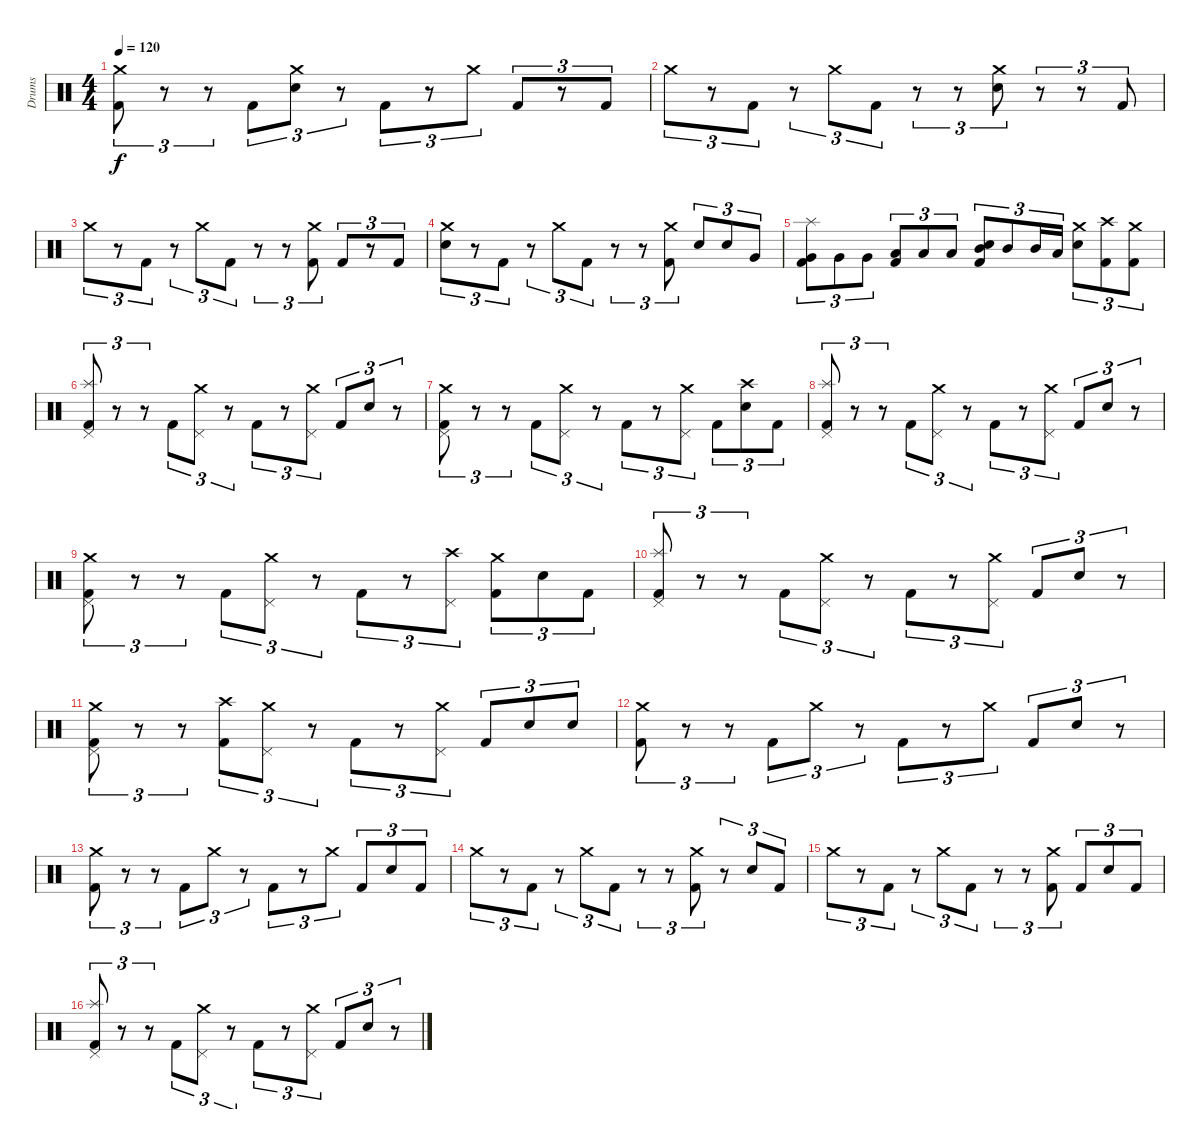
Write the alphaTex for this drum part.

\track ("Drums" "Drums") {instrument percussion}
\staff {score}
\articulation defaults
\ts (4 4)
\tempo 120
\clef neutral
\ks c
("Crash medium (hit)" "Kick (hit) 2").8{tu (3 2) dy f} r.8{tu (3 2)} r.8{tu (3 2)} "Kick (hit) 2".8{tu (3 2)} ("Crash medium (hit)" "Electric Snare (hit)").8{tu (3 2)} r.8{tu (3 2)} "Kick (hit) 2".8{tu (3 2)} r.8{tu (3 2)} "Crash medium (hit)".8{tu (3 2)} "Kick (hit) 2".8{tu (3 2)} r.8{tu (3 2)} "Kick (hit) 2".8{tu (3 2)} |
"Crash medium (hit)".8{tu (3 2)} r.8{tu (3 2)} "Kick (hit) 2".8{tu (3 2)} r.8{tu (3 2)} "Crash medium (hit)".8{tu (3 2)} "Kick (hit) 2".8{tu (3 2)} r.8{tu (3 2)} r.8{tu (3 2)} ("Crash medium (hit)" "Electric Snare (hit)").8{tu (3 2)} r.8{tu (3 2)} r.8{tu (3 2)} "Kick (hit) 2".8{tu (3 2)} |
"Crash medium (hit)".8{tu (3 2)} r.8{tu (3 2)} "Kick (hit) 2".8{tu (3 2)} r.8{tu (3 2)} "Crash medium (hit)".8{tu (3 2)} "Kick (hit) 2".8{tu (3 2)} r.8{tu (3 2)} r.8{tu (3 2)} ("Crash medium (hit)" "Kick (hit) 2").8{tu (3 2)} "Kick (hit) 2".8{tu (3 2)} r.8{tu (3 2)} "Kick (hit) 2".8{tu (3 2)} |
("Crash medium (hit)" "Electric Snare (hit)").8{tu (3 2)} r.8{tu (3 2)} "Kick (hit) 2".8{tu (3 2)} r.8{tu (3 2)} "Crash medium (hit)".8{tu (3 2)} "Kick (hit) 2".8{tu (3 2)} r.8{tu (3 2)} r.8{tu (3 2)} ("Crash medium (hit)" "Kick (hit) 2").8{tu (3 2)} "Electric Snare (hit)".8{tu (3 2)} "Electric Snare (hit)".8{tu (3 2)} "Very Low Tom (hit)".8{tu (3 2)} |
("Splash (hit)" "Very Low Tom (hit)" "Kick (hit) 2").8{tu (3 2)} "Very Low Tom (hit)".8{tu (3 2)} "Very Low Tom (hit)".8{tu (3 2)} ("Low Tom (hit)" "Kick (hit) 2").8{tu (3 2)} "Low Tom (hit)".8{tu (3 2)} "Low Tom (hit)".8{tu (3 2)} ("Mid Tom (hit)" "Electric Snare (hit)" "Kick (hit) 2").8{tu (3 2)} "Mid Tom (hit)".8{tu (3 2)} "Mid Tom (hit)".16{tu (3 2)} "Low Tom (hit)".16{tu (3 2)} ("Crash medium (hit)" "Electric Snare (hit)").8{tu (3 2)} ("Crash high (hit)" "Kick (hit) 2").8{tu (3 2)} ("Crash medium (hit)" "Kick (hit) 2").8{tu (3 2)} |
("Splash (hit)" "Pedal Hi-Hat (hit)" "Kick (hit) 2").8{tu (3 2)} r.8{tu (3 2)} r.8{tu (3 2)} "Kick (hit) 2".8{tu (3 2)} ("Crash medium (hit)" "Pedal Hi-Hat (hit)").8{tu (3 2)} r.8{tu (3 2)} "Kick (hit) 2".8{tu (3 2)} r.8{tu (3 2)} ("Crash medium (hit)" "Pedal Hi-Hat (hit)").8{tu (3 2)} "Kick (hit) 2".8{tu (3 2)} "Electric Snare (hit)".8{tu (3 2)} r.8{tu (3 2)} |
("Crash medium (hit)" "Pedal Hi-Hat (hit)" "Kick (hit) 2").8{tu (3 2)} r.8{tu (3 2)} r.8{tu (3 2)} "Kick (hit) 2".8{tu (3 2)} ("Crash medium (hit)" "Pedal Hi-Hat (hit)").8{tu (3 2)} r.8{tu (3 2)} "Kick (hit) 2".8{tu (3 2)} r.8{tu (3 2)} ("Crash medium (hit)" "Pedal Hi-Hat (hit)").8{tu (3 2)} "Kick (hit) 2".8{tu (3 2)} ("Crash high (hit)" "Electric Snare (hit)").8{tu (3 2)} "Kick (hit) 2".8{tu (3 2)} |
("Splash (hit)" "Pedal Hi-Hat (hit)" "Kick (hit) 2").8{tu (3 2)} r.8{tu (3 2)} r.8{tu (3 2)} "Kick (hit) 2".8{tu (3 2)} ("Crash medium (hit)" "Pedal Hi-Hat (hit)").8{tu (3 2)} r.8{tu (3 2)} "Kick (hit) 2".8{tu (3 2)} r.8{tu (3 2)} ("Crash medium (hit)" "Pedal Hi-Hat (hit)").8{tu (3 2)} "Kick (hit) 2".8{tu (3 2)} "Electric Snare (hit)".8{tu (3 2)} r.8{tu (3 2)} |
("Crash medium (hit)" "Pedal Hi-Hat (hit)" "Kick (hit) 2").8{tu (3 2)} r.8{tu (3 2)} r.8{tu (3 2)} "Kick (hit) 2".8{tu (3 2)} ("Crash medium (hit)" "Pedal Hi-Hat (hit)").8{tu (3 2)} r.8{tu (3 2)} "Kick (hit) 2".8{tu (3 2)} r.8{tu (3 2)} ("Crash high (hit)" "Pedal Hi-Hat (hit)").8{tu (3 2)} ("Crash medium (hit)" "Kick (hit) 2").8{tu (3 2)} "Electric Snare (hit)".8{tu (3 2)} "Kick (hit) 2".8{tu (3 2)} |
("Splash (hit)" "Pedal Hi-Hat (hit)" "Kick (hit) 2").8{tu (3 2)} r.8{tu (3 2)} r.8{tu (3 2)} "Kick (hit) 2".8{tu (3 2)} ("Crash medium (hit)" "Pedal Hi-Hat (hit)").8{tu (3 2)} r.8{tu (3 2)} "Kick (hit) 2".8{tu (3 2)} r.8{tu (3 2)} ("Crash medium (hit)" "Pedal Hi-Hat (hit)").8{tu (3 2)} "Kick (hit) 2".8{tu (3 2)} "Electric Snare (hit)".8{tu (3 2)} r.8{tu (3 2)} |
("Crash medium (hit)" "Pedal Hi-Hat (hit)" "Kick (hit) 2").8{tu (3 2)} r.8{tu (3 2)} r.8{tu (3 2)} ("Crash high (hit)" "Kick (hit) 2").8{tu (3 2)} ("Crash medium (hit)" "Pedal Hi-Hat (hit)").8{tu (3 2)} r.8{tu (3 2)} "Kick (hit) 2".8{tu (3 2)} r.8{tu (3 2)} ("Crash medium (hit)" "Pedal Hi-Hat (hit)").8{tu (3 2)} "Kick (hit) 2".8{tu (3 2)} "Electric Snare (hit)".8{tu (3 2)} "Electric Snare (hit)".8{tu (3 2)} |
("Crash medium (hit)" "Kick (hit) 2").8{tu (3 2)} r.8{tu (3 2)} r.8{tu (3 2)} "Kick (hit) 2".8{tu (3 2)} "Crash medium (hit)".8{tu (3 2)} r.8{tu (3 2)} "Kick (hit) 2".8{tu (3 2)} r.8{tu (3 2)} "Crash medium (hit)".8{tu (3 2)} "Kick (hit) 2".8{tu (3 2)} "Electric Snare (hit)".8{tu (3 2)} r.8{tu (3 2)} |
("Crash medium (hit)" "Kick (hit) 2").8{tu (3 2)} r.8{tu (3 2)} r.8{tu (3 2)} "Kick (hit) 2".8{tu (3 2)} "Crash medium (hit)".8{tu (3 2)} r.8{tu (3 2)} "Kick (hit) 2".8{tu (3 2)} r.8{tu (3 2)} "Crash medium (hit)".8{tu (3 2)} "Kick (hit) 2".8{tu (3 2)} "Electric Snare (hit)".8{tu (3 2)} "Kick (hit) 2".8{tu (3 2)} |
"Crash medium (hit)".8{tu (3 2)} r.8{tu (3 2)} "Kick (hit) 2".8{tu (3 2)} r.8{tu (3 2)} "Crash medium (hit)".8{tu (3 2)} "Kick (hit) 2".8{tu (3 2)} r.8{tu (3 2)} r.8{tu (3 2)} ("Crash medium (hit)" "Kick (hit) 2").8{tu (3 2)} r.8{tu (3 2)} "Electric Snare (hit)".8{tu (3 2)} "Kick (hit) 2".8{tu (3 2)} |
"Crash medium (hit)".8{tu (3 2)} r.8{tu (3 2)} "Kick (hit) 2".8{tu (3 2)} r.8{tu (3 2)} "Crash medium (hit)".8{tu (3 2)} "Kick (hit) 2".8{tu (3 2)} r.8{tu (3 2)} r.8{tu (3 2)} ("Crash medium (hit)" "Kick (hit) 2").8{tu (3 2)} "Kick (hit) 2".8{tu (3 2)} "Electric Snare (hit)".8{tu (3 2)} "Kick (hit) 2".8{tu (3 2)} |
("Splash (hit)" "Pedal Hi-Hat (hit)" "Kick (hit) 2").8{tu (3 2)} r.8{tu (3 2)} r.8{tu (3 2)} "Kick (hit) 2".8{tu (3 2)} ("Crash medium (hit)" "Pedal Hi-Hat (hit)").8{tu (3 2)} r.8{tu (3 2)} "Kick (hit) 2".8{tu (3 2)} r.8{tu (3 2)} ("Crash medium (hit)" "Pedal Hi-Hat (hit)").8{tu (3 2)} "Kick (hit) 2".8{tu (3 2)} "Electric Snare (hit)".8{tu (3 2)} r.8{tu (3 2)}
